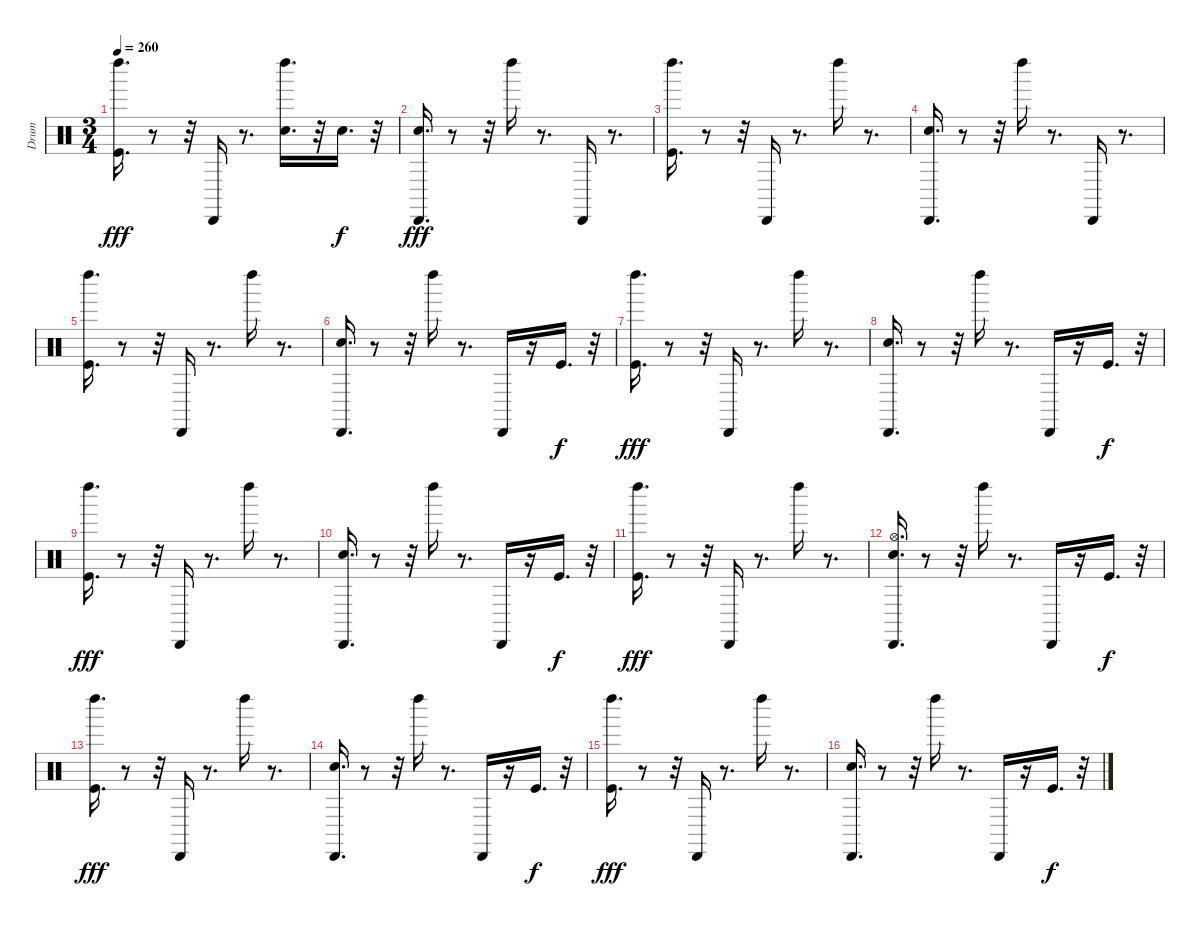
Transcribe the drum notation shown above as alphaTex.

\track ("Drum" "Drum") {instrument percussion}
\staff {score}
\articulation defaults
\ts (3 4)
\tempo 260
\clef neutral
\ks c
("Left Maraca (hit)" "Kick (hit)").16{d dy fff} r.8 r.32 "Cabasa (hit)".16 r.8{d} ("Electric Snare (hit)" "Left Maraca (hit)").16{d} r.32 "Electric Snare (hit)".16{d dy f} r.32 |
("Cabasa (hit)" "Electric Snare (hit)").16{d dy fff} r.8 r.32 "Left Maraca (hit)".16 r.8{d} "Cabasa (hit)".16 r.8{d} |
("Left Maraca (hit)" "Kick (hit)").16{d} r.8 r.32 "Cabasa (hit)".16 r.8{d} "Left Maraca (hit)".16 r.8{d} |
("Cabasa (hit)" "Electric Snare (hit)").16{d} r.8 r.32 "Left Maraca (hit)".16 r.8{d} "Cabasa (hit)".16 r.8{d} |
("Left Maraca (hit)" "Kick (hit)").16{d} r.8 r.32 "Cabasa (hit)".16 r.8{d} "Left Maraca (hit)".16 r.8{d} |
("Cabasa (hit)" "Electric Snare (hit)").16{d} r.8 r.32 "Left Maraca (hit)".16 r.8{d} "Cabasa (hit)".16 r.16 "Kick (hit)".16{d dy f} r.32 |
("Left Maraca (hit)" "Kick (hit)").16{d dy fff} r.8 r.32 "Cabasa (hit)".16 r.8{d} "Left Maraca (hit)".16 r.8{d} |
("Cabasa (hit)" "Electric Snare (hit)").16{d} r.8 r.32 "Left Maraca (hit)".16 r.8{d} "Cabasa (hit)".16 r.16 "Kick (hit)".16{d dy f} r.32 |
("Left Maraca (hit)" "Kick (hit)").16{d dy fff} r.8 r.32 "Cabasa (hit)".16 r.8{d} "Left Maraca (hit)".16 r.8{d} |
("Cabasa (hit)" "Electric Snare (hit)").16{d} r.8 r.32 "Left Maraca (hit)".16 r.8{d} "Cabasa (hit)".16 r.16 "Kick (hit)".16{d dy f} r.32 |
("Left Maraca (hit)" "Kick (hit)").16{d dy fff} r.8 r.32 "Cabasa (hit)".16 r.8{d} "Left Maraca (hit)".16 r.8{d} |
("Cabasa (hit)" "Electric Snare (hit)" "Hi-Hat (open)").16{d} r.8 r.32 "Left Maraca (hit)".16 r.8{d} "Cabasa (hit)".16 r.16 "Kick (hit)".16{d dy f} r.32 |
("Left Maraca (hit)" "Kick (hit)").16{d dy fff} r.8 r.32 "Cabasa (hit)".16 r.8{d} "Left Maraca (hit)".16 r.8{d} |
("Cabasa (hit)" "Electric Snare (hit)").16{d} r.8 r.32 "Left Maraca (hit)".16 r.8{d} "Cabasa (hit)".16 r.16 "Kick (hit)".16{d dy f} r.32 |
("Left Maraca (hit)" "Kick (hit)").16{d dy fff} r.8 r.32 "Cabasa (hit)".16 r.8{d} "Left Maraca (hit)".16 r.8{d} |
("Cabasa (hit)" "Electric Snare (hit)").16{d} r.8 r.32 "Left Maraca (hit)".16 r.8{d} "Cabasa (hit)".16 r.16 "Kick (hit)".16{d dy f} r.32
